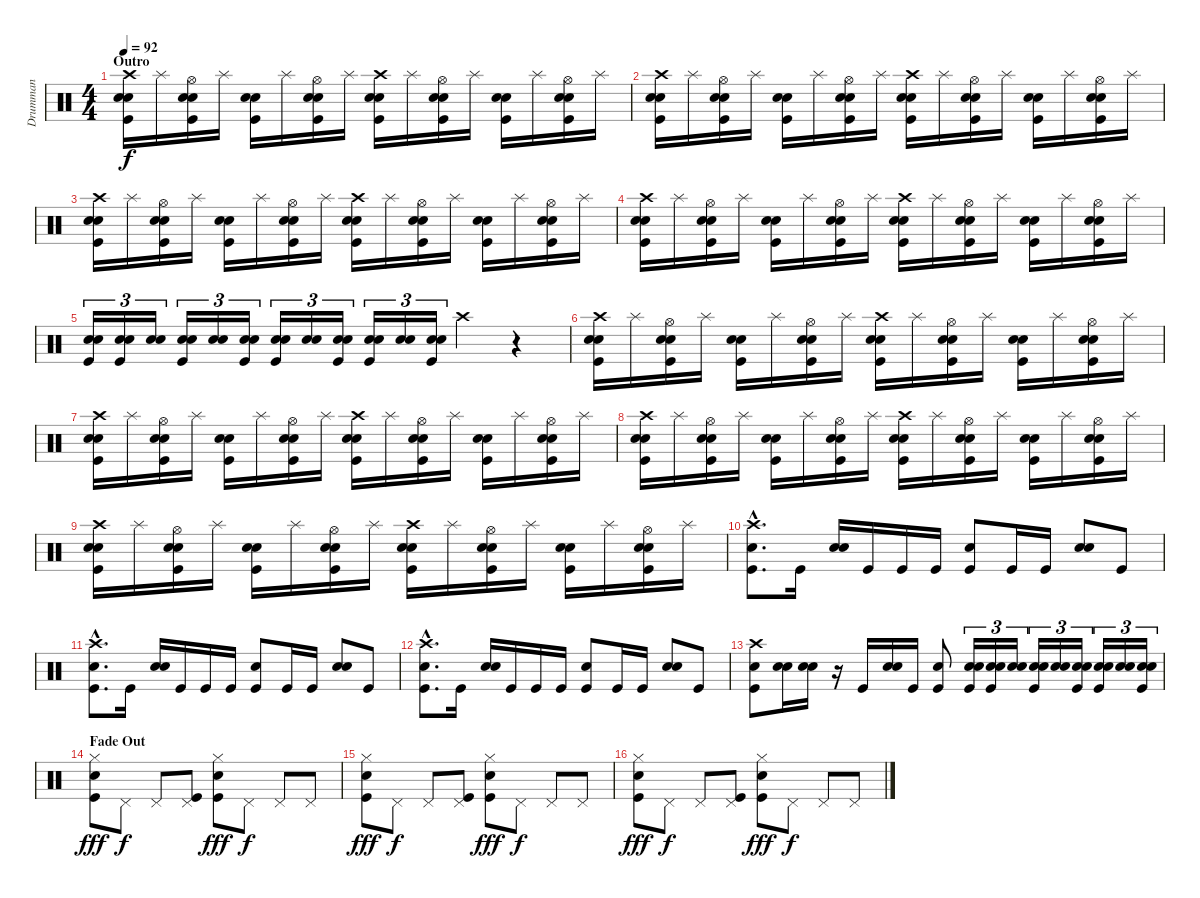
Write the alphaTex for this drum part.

\track ("Drumman" "Drumman") {instrument percussion}
\staff {score}
\articulation defaults
\ts (4 4)
\section ("" "Outro")
\tempo 92
\clef neutral
\ks c
("Crash high (hit)" "Snare (hit) 2" "Electric Snare (hit)" "Kick (hit)").16{dy f} "Splash (hit)".16 ("Hi-Hat (open)" "Snare (hit) 2" "Electric Snare (hit)" "Kick (hit)").16 "Splash (hit)".16 ("Snare (hit) 2" "Electric Snare (hit)" "Kick (hit)").16 "Splash (hit)".16 ("Hi-Hat (open)" "Snare (hit) 2" "Electric Snare (hit)" "Kick (hit)").16 "Splash (hit)".16 ("Crash high (hit)" "Snare (hit) 2" "Electric Snare (hit)" "Kick (hit)").16 "Splash (hit)".16 ("Hi-Hat (open)" "Snare (hit) 2" "Electric Snare (hit)" "Kick (hit)").16 "Splash (hit)".16 ("Snare (hit) 2" "Electric Snare (hit)" "Kick (hit)").16 "Splash (hit)".16 ("Hi-Hat (open)" "Snare (hit) 2" "Electric Snare (hit)" "Kick (hit)").16 "Splash (hit)".16 |
("Crash high (hit)" "Snare (hit) 2" "Electric Snare (hit)" "Kick (hit)").16 "Splash (hit)".16 ("Hi-Hat (open)" "Snare (hit) 2" "Electric Snare (hit)" "Kick (hit)").16 "Splash (hit)".16 ("Snare (hit) 2" "Electric Snare (hit)" "Kick (hit)").16 "Splash (hit)".16 ("Hi-Hat (open)" "Snare (hit) 2" "Electric Snare (hit)" "Kick (hit)").16 "Splash (hit)".16 ("Crash high (hit)" "Snare (hit) 2" "Electric Snare (hit)" "Kick (hit)").16 "Splash (hit)".16 ("Hi-Hat (open)" "Snare (hit) 2" "Electric Snare (hit)" "Kick (hit)").16 "Splash (hit)".16 ("Snare (hit) 2" "Electric Snare (hit)" "Kick (hit)").16 "Splash (hit)".16 ("Hi-Hat (open)" "Snare (hit) 2" "Electric Snare (hit)" "Kick (hit)").16 "Splash (hit)".16 |
("Crash high (hit)" "Snare (hit) 2" "Electric Snare (hit)" "Kick (hit)").16 "Splash (hit)".16 ("Hi-Hat (open)" "Snare (hit) 2" "Electric Snare (hit)" "Kick (hit)").16 "Splash (hit)".16 ("Snare (hit) 2" "Electric Snare (hit)" "Kick (hit)").16 "Splash (hit)".16 ("Hi-Hat (open)" "Snare (hit) 2" "Electric Snare (hit)" "Kick (hit)").16 "Splash (hit)".16 ("Crash high (hit)" "Snare (hit) 2" "Electric Snare (hit)" "Kick (hit)").16 "Splash (hit)".16 ("Hi-Hat (open)" "Snare (hit) 2" "Electric Snare (hit)" "Kick (hit)").16 "Splash (hit)".16 ("Snare (hit) 2" "Electric Snare (hit)" "Kick (hit)").16 "Splash (hit)".16 ("Hi-Hat (open)" "Snare (hit) 2" "Electric Snare (hit)" "Kick (hit)").16 "Splash (hit)".16 |
("Crash high (hit)" "Snare (hit) 2" "Electric Snare (hit)" "Kick (hit)").16 "Splash (hit)".16 ("Hi-Hat (open)" "Snare (hit) 2" "Electric Snare (hit)" "Kick (hit)").16 "Splash (hit)".16 ("Snare (hit) 2" "Electric Snare (hit)" "Kick (hit)").16 "Splash (hit)".16 ("Hi-Hat (open)" "Snare (hit) 2" "Electric Snare (hit)" "Kick (hit)").16 "Splash (hit)".16 ("Crash high (hit)" "Snare (hit) 2" "Electric Snare (hit)" "Kick (hit)").16 "Splash (hit)".16 ("Hi-Hat (open)" "Snare (hit) 2" "Electric Snare (hit)" "Kick (hit)").16 "Splash (hit)".16 ("Snare (hit) 2" "Electric Snare (hit)" "Kick (hit)").16 "Splash (hit)".16 ("Hi-Hat (open)" "Snare (hit) 2" "Electric Snare (hit)" "Kick (hit)").16 "Splash (hit)".16 |
("Snare (hit) 2" "Electric Snare (hit)" "Kick (hit)").16{tu (3 2)} ("Snare (hit) 2" "Electric Snare (hit)" "Kick (hit)").16{tu (3 2)} ("Snare (hit) 2" "Electric Snare (hit)").16{tu (3 2)} ("Snare (hit) 2" "Electric Snare (hit)" "Kick (hit)").16{tu (3 2)} ("Snare (hit) 2" "Electric Snare (hit)").16{tu (3 2)} ("Snare (hit) 2" "Electric Snare (hit)" "Kick (hit)").16{tu (3 2)} ("Snare (hit) 2" "Electric Snare (hit)" "Kick (hit)").16{tu (3 2)} ("Snare (hit) 2" "Electric Snare (hit)").16{tu (3 2)} ("Snare (hit) 2" "Electric Snare (hit)" "Kick (hit)").16{tu (3 2)} ("Snare (hit) 2" "Electric Snare (hit)" "Kick (hit)").16{tu (3 2)} ("Snare (hit) 2" "Electric Snare (hit)").16{tu (3 2)} ("Snare (hit) 2" "Electric Snare (hit)" "Kick (hit)").16{tu (3 2)} "Crash high (hit)".4 r.4 |
("Crash high (hit)" "Snare (hit) 2" "Electric Snare (hit)" "Kick (hit)").16 "Splash (hit)".16 ("Hi-Hat (open)" "Snare (hit) 2" "Electric Snare (hit)" "Kick (hit)").16 "Splash (hit)".16 ("Snare (hit) 2" "Electric Snare (hit)" "Kick (hit)").16 "Splash (hit)".16 ("Hi-Hat (open)" "Snare (hit) 2" "Electric Snare (hit)" "Kick (hit)").16 "Splash (hit)".16 ("Crash high (hit)" "Snare (hit) 2" "Electric Snare (hit)" "Kick (hit)").16 "Splash (hit)".16 ("Hi-Hat (open)" "Snare (hit) 2" "Electric Snare (hit)" "Kick (hit)").16 "Splash (hit)".16 ("Snare (hit) 2" "Electric Snare (hit)" "Kick (hit)").16 "Splash (hit)".16 ("Hi-Hat (open)" "Snare (hit) 2" "Electric Snare (hit)" "Kick (hit)").16 "Splash (hit)".16 |
("Crash high (hit)" "Snare (hit) 2" "Electric Snare (hit)" "Kick (hit)").16 "Splash (hit)".16 ("Hi-Hat (open)" "Snare (hit) 2" "Electric Snare (hit)" "Kick (hit)").16 "Splash (hit)".16 ("Snare (hit) 2" "Electric Snare (hit)" "Kick (hit)").16 "Splash (hit)".16 ("Hi-Hat (open)" "Snare (hit) 2" "Electric Snare (hit)" "Kick (hit)").16 "Splash (hit)".16 ("Crash high (hit)" "Snare (hit) 2" "Electric Snare (hit)" "Kick (hit)").16 "Splash (hit)".16 ("Hi-Hat (open)" "Snare (hit) 2" "Electric Snare (hit)" "Kick (hit)").16 "Splash (hit)".16 ("Snare (hit) 2" "Electric Snare (hit)" "Kick (hit)").16 "Splash (hit)".16 ("Hi-Hat (open)" "Snare (hit) 2" "Electric Snare (hit)" "Kick (hit)").16 "Splash (hit)".16 |
("Crash high (hit)" "Snare (hit) 2" "Electric Snare (hit)" "Kick (hit)").16 "Splash (hit)".16 ("Hi-Hat (open)" "Snare (hit) 2" "Electric Snare (hit)" "Kick (hit)").16 "Splash (hit)".16 ("Snare (hit) 2" "Electric Snare (hit)" "Kick (hit)").16 "Splash (hit)".16 ("Hi-Hat (open)" "Snare (hit) 2" "Electric Snare (hit)" "Kick (hit)").16 "Splash (hit)".16 ("Crash high (hit)" "Snare (hit) 2" "Electric Snare (hit)" "Kick (hit)").16 "Splash (hit)".16 ("Hi-Hat (open)" "Snare (hit) 2" "Electric Snare (hit)" "Kick (hit)").16 "Splash (hit)".16 ("Snare (hit) 2" "Electric Snare (hit)" "Kick (hit)").16 "Splash (hit)".16 ("Hi-Hat (open)" "Snare (hit) 2" "Electric Snare (hit)" "Kick (hit)").16 "Splash (hit)".16 |
("Crash high (hit)" "Snare (hit) 2" "Electric Snare (hit)" "Kick (hit)").16 "Splash (hit)".16 ("Hi-Hat (open)" "Snare (hit) 2" "Electric Snare (hit)" "Kick (hit)").16 "Splash (hit)".16 ("Snare (hit) 2" "Electric Snare (hit)" "Kick (hit)").16 "Splash (hit)".16 ("Hi-Hat (open)" "Snare (hit) 2" "Electric Snare (hit)" "Kick (hit)").16 "Splash (hit)".16 ("Crash high (hit)" "Snare (hit) 2" "Electric Snare (hit)" "Kick (hit)").16 "Splash (hit)".16 ("Hi-Hat (open)" "Snare (hit) 2" "Electric Snare (hit)" "Kick (hit)").16 "Splash (hit)".16 ("Snare (hit) 2" "Electric Snare (hit)" "Kick (hit)").16 "Splash (hit)".16 ("Hi-Hat (open)" "Snare (hit) 2" "Electric Snare (hit)" "Kick (hit)").16 "Splash (hit)".16 |
("Hand Clap (hit)"{hac} "Crash high (hit)"{hac} "Kick (hit)"{hac}).8{d} "Kick (hit)".16 ("Snare (hit) 2" "Electric Snare (hit)").16 "Kick (hit)".16 "Kick (hit)".16 "Kick (hit)".16 ("Hand Clap (hit)" "Kick (hit)").8 "Kick (hit)".16 "Kick (hit)".16 ("Snare (hit) 2" "Electric Snare (hit)").8 "Kick (hit)".8 |
("Hand Clap (hit)"{hac} "Crash high (hit)"{hac} "Kick (hit)"{hac}).8{d} "Kick (hit)".16 ("Snare (hit) 2" "Electric Snare (hit)").16 "Kick (hit)".16 "Kick (hit)".16 "Kick (hit)".16 ("Hand Clap (hit)" "Kick (hit)").8 "Kick (hit)".16 "Kick (hit)".16 ("Snare (hit) 2" "Electric Snare (hit)").8 "Kick (hit)".8 |
("Hand Clap (hit)"{hac} "Crash high (hit)"{hac} "Kick (hit)"{hac}).8{d} "Kick (hit)".16 ("Snare (hit) 2" "Electric Snare (hit)").16 "Kick (hit)".16 "Kick (hit)".16 "Kick (hit)".16 ("Hand Clap (hit)" "Kick (hit)").8 "Kick (hit)".16 "Kick (hit)".16 ("Snare (hit) 2" "Electric Snare (hit)").8 "Kick (hit)".8 |
("Hand Clap (hit)" "Crash high (hit)" "Kick (hit)").8 ("Snare (hit) 2" "Electric Snare (hit)").16 ("Snare (hit) 2" "Electric Snare (hit)").16 r.16 "Kick (hit)".16 ("Snare (hit) 2" "Electric Snare (hit)").16 "Kick (hit)".16 ("Hand Clap (hit)" "Kick (hit)").8 ("Snare (hit) 2" "Electric Snare (hit)" "Kick (hit)").16{tu (3 2)} ("Snare (hit) 2" "Electric Snare (hit)" "Kick (hit)").16{tu (3 2)} ("Snare (hit) 2" "Electric Snare (hit)").16{tu (3 2)} ("Snare (hit) 2" "Electric Snare (hit)" "Kick (hit)").16{tu (3 2)} ("Snare (hit) 2" "Electric Snare (hit)").16{tu (3 2)} ("Snare (hit) 2" "Electric Snare (hit)" "Kick (hit)").16{tu (3 2)} ("Snare (hit) 2" "Electric Snare (hit)" "Kick (hit)").16{tu (3 2)} ("Snare (hit) 2" "Electric Snare (hit)").16{tu (3 2)} ("Snare (hit) 2" "Electric Snare (hit)" "Kick (hit)").16{tu (3 2)} |
\section ("" "Fade Out")
("Hand Clap (hit)" "Hi-Hat (closed)" "Kick (hit)").8{dy fff volume 8} "Pedal Hi-Hat (hit)".8{dy f} "Pedal Hi-Hat (hit)".8 ("Pedal Hi-Hat (hit)" "Kick (hit)").8 ("Hand Clap (hit)" "Hi-Hat (closed)" "Kick (hit)").8{dy fff} "Pedal Hi-Hat (hit)".8{dy f} "Pedal Hi-Hat (hit)".8 "Pedal Hi-Hat (hit)".8 |
("Hand Clap (hit)" "Hi-Hat (closed)" "Kick (hit)").8{dy fff} "Pedal Hi-Hat (hit)".8{dy f} "Pedal Hi-Hat (hit)".8 ("Pedal Hi-Hat (hit)" "Kick (hit)").8 ("Hand Clap (hit)" "Hi-Hat (closed)" "Kick (hit)").8{dy fff} "Pedal Hi-Hat (hit)".8{dy f} "Pedal Hi-Hat (hit)".8 "Pedal Hi-Hat (hit)".8 |
("Hand Clap (hit)" "Hi-Hat (closed)" "Kick (hit)").8{dy fff volume 2} "Pedal Hi-Hat (hit)".8{dy f} "Pedal Hi-Hat (hit)".8 ("Pedal Hi-Hat (hit)" "Kick (hit)").8 ("Hand Clap (hit)" "Hi-Hat (closed)" "Kick (hit)").8{dy fff} "Pedal Hi-Hat (hit)".8{dy f} "Pedal Hi-Hat (hit)".8 "Pedal Hi-Hat (hit)".8
